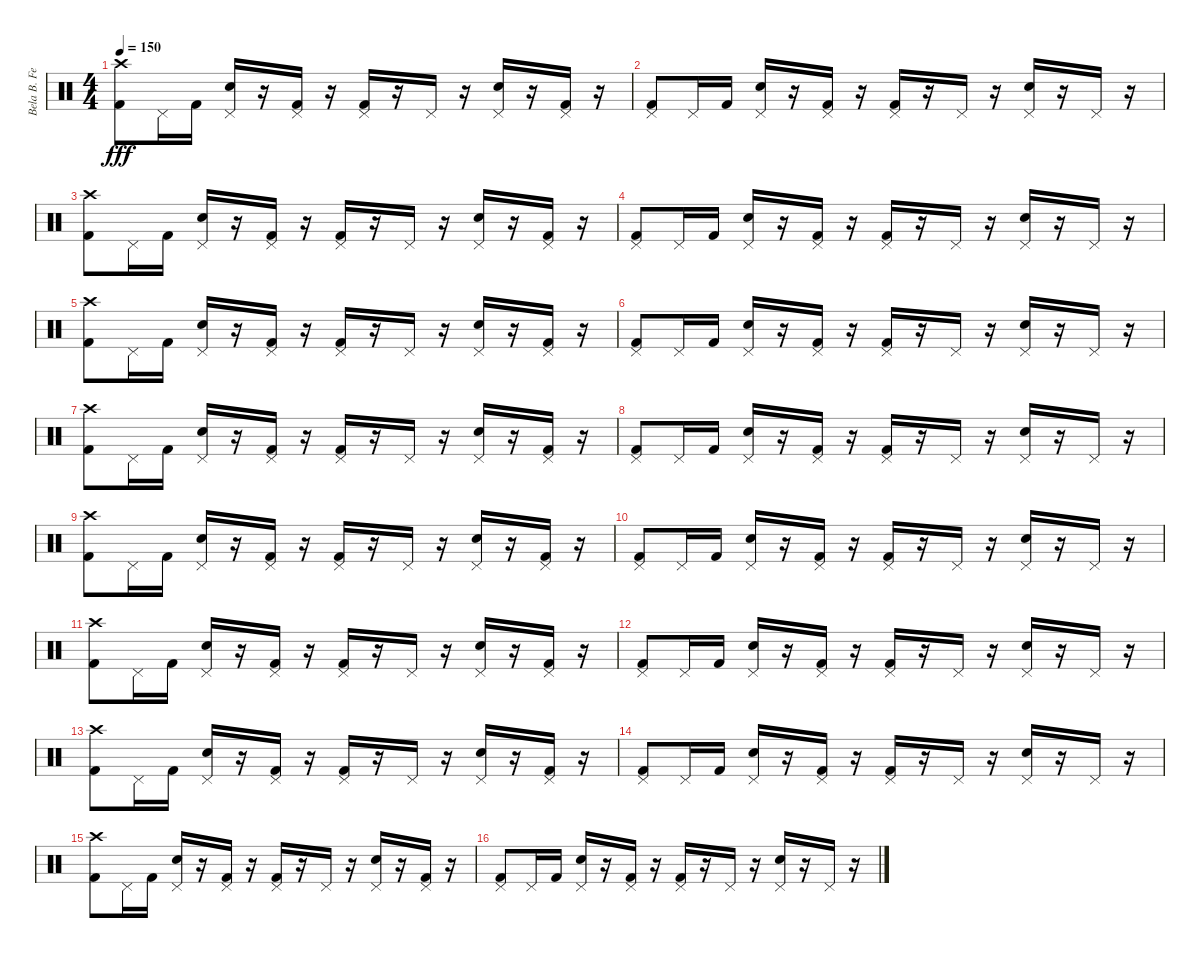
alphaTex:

\track ("Bela B. Felsenheimer" "Bela B. Fe") {instrument percussion}
\staff {score}
\articulation defaults
\ts (4 4)
\tempo 150
\clef neutral
\ks c
("Crash high (hit)" "Kick (hit) 2").8{dy fff} "Pedal Hi-Hat (hit)".16 "Kick (hit) 2".16 ("Pedal Hi-Hat (hit)" "Snare (hit) 2").16 r.16 ("Pedal Hi-Hat (hit)" "Kick (hit) 2").16 r.16 ("Pedal Hi-Hat (hit)" "Kick (hit) 2").16 r.16 "Pedal Hi-Hat (hit)".16 r.16 ("Pedal Hi-Hat (hit)" "Snare (hit) 2").16 r.16 ("Pedal Hi-Hat (hit)" "Kick (hit) 2").16 r.16 |
("Pedal Hi-Hat (hit)" "Kick (hit) 2").8 "Pedal Hi-Hat (hit)".16 "Kick (hit) 2".16 ("Pedal Hi-Hat (hit)" "Snare (hit) 2").16 r.16 ("Pedal Hi-Hat (hit)" "Kick (hit) 2").16 r.16 ("Pedal Hi-Hat (hit)" "Kick (hit) 2").16 r.16 "Pedal Hi-Hat (hit)".16 r.16 ("Pedal Hi-Hat (hit)" "Snare (hit) 2").16 r.16 "Pedal Hi-Hat (hit)".16 r.16 |
("Crash high (hit)" "Kick (hit) 2").8 "Pedal Hi-Hat (hit)".16 "Kick (hit) 2".16 ("Pedal Hi-Hat (hit)" "Snare (hit) 2").16 r.16 ("Pedal Hi-Hat (hit)" "Kick (hit) 2").16 r.16 ("Pedal Hi-Hat (hit)" "Kick (hit) 2").16 r.16 "Pedal Hi-Hat (hit)".16 r.16 ("Pedal Hi-Hat (hit)" "Snare (hit) 2").16 r.16 ("Pedal Hi-Hat (hit)" "Kick (hit) 2").16 r.16 |
("Pedal Hi-Hat (hit)" "Kick (hit) 2").8 "Pedal Hi-Hat (hit)".16 "Kick (hit) 2".16 ("Pedal Hi-Hat (hit)" "Snare (hit) 2").16 r.16 ("Pedal Hi-Hat (hit)" "Kick (hit) 2").16 r.16 ("Pedal Hi-Hat (hit)" "Kick (hit) 2").16 r.16 "Pedal Hi-Hat (hit)".16 r.16 ("Pedal Hi-Hat (hit)" "Snare (hit) 2").16 r.16 "Pedal Hi-Hat (hit)".16 r.16 |
("Crash high (hit)" "Kick (hit) 2").8 "Pedal Hi-Hat (hit)".16 "Kick (hit) 2".16 ("Pedal Hi-Hat (hit)" "Snare (hit) 2").16 r.16 ("Pedal Hi-Hat (hit)" "Kick (hit) 2").16 r.16 ("Pedal Hi-Hat (hit)" "Kick (hit) 2").16 r.16 "Pedal Hi-Hat (hit)".16 r.16 ("Pedal Hi-Hat (hit)" "Snare (hit) 2").16 r.16 ("Pedal Hi-Hat (hit)" "Kick (hit) 2").16 r.16 |
("Pedal Hi-Hat (hit)" "Kick (hit) 2").8 "Pedal Hi-Hat (hit)".16 "Kick (hit) 2".16 ("Pedal Hi-Hat (hit)" "Snare (hit) 2").16 r.16 ("Pedal Hi-Hat (hit)" "Kick (hit) 2").16 r.16 ("Pedal Hi-Hat (hit)" "Kick (hit) 2").16 r.16 "Pedal Hi-Hat (hit)".16 r.16 ("Pedal Hi-Hat (hit)" "Snare (hit) 2").16 r.16 "Pedal Hi-Hat (hit)".16 r.16 |
("Crash high (hit)" "Kick (hit) 2").8 "Pedal Hi-Hat (hit)".16 "Kick (hit) 2".16 ("Pedal Hi-Hat (hit)" "Snare (hit) 2").16 r.16 ("Pedal Hi-Hat (hit)" "Kick (hit) 2").16 r.16 ("Pedal Hi-Hat (hit)" "Kick (hit) 2").16 r.16 "Pedal Hi-Hat (hit)".16 r.16 ("Pedal Hi-Hat (hit)" "Snare (hit) 2").16 r.16 ("Pedal Hi-Hat (hit)" "Kick (hit) 2").16 r.16 |
("Pedal Hi-Hat (hit)" "Kick (hit) 2").8 "Pedal Hi-Hat (hit)".16 "Kick (hit) 2".16 ("Pedal Hi-Hat (hit)" "Snare (hit) 2").16 r.16 ("Pedal Hi-Hat (hit)" "Kick (hit) 2").16 r.16 ("Pedal Hi-Hat (hit)" "Kick (hit) 2").16 r.16 "Pedal Hi-Hat (hit)".16 r.16 ("Pedal Hi-Hat (hit)" "Snare (hit) 2").16 r.16 "Pedal Hi-Hat (hit)".16 r.16 |
("Crash high (hit)" "Kick (hit) 2").8 "Pedal Hi-Hat (hit)".16 "Kick (hit) 2".16 ("Pedal Hi-Hat (hit)" "Snare (hit) 2").16 r.16 ("Pedal Hi-Hat (hit)" "Kick (hit) 2").16 r.16 ("Pedal Hi-Hat (hit)" "Kick (hit) 2").16 r.16 "Pedal Hi-Hat (hit)".16 r.16 ("Pedal Hi-Hat (hit)" "Snare (hit) 2").16 r.16 ("Pedal Hi-Hat (hit)" "Kick (hit) 2").16 r.16 |
("Pedal Hi-Hat (hit)" "Kick (hit) 2").8 "Pedal Hi-Hat (hit)".16 "Kick (hit) 2".16 ("Pedal Hi-Hat (hit)" "Snare (hit) 2").16 r.16 ("Pedal Hi-Hat (hit)" "Kick (hit) 2").16 r.16 ("Pedal Hi-Hat (hit)" "Kick (hit) 2").16 r.16 "Pedal Hi-Hat (hit)".16 r.16 ("Pedal Hi-Hat (hit)" "Snare (hit) 2").16 r.16 "Pedal Hi-Hat (hit)".16 r.16 |
("Crash high (hit)" "Kick (hit) 2").8 "Pedal Hi-Hat (hit)".16 "Kick (hit) 2".16 ("Pedal Hi-Hat (hit)" "Snare (hit) 2").16 r.16 ("Pedal Hi-Hat (hit)" "Kick (hit) 2").16 r.16 ("Pedal Hi-Hat (hit)" "Kick (hit) 2").16 r.16 "Pedal Hi-Hat (hit)".16 r.16 ("Pedal Hi-Hat (hit)" "Snare (hit) 2").16 r.16 ("Pedal Hi-Hat (hit)" "Kick (hit) 2").16 r.16 |
("Pedal Hi-Hat (hit)" "Kick (hit) 2").8 "Pedal Hi-Hat (hit)".16 "Kick (hit) 2".16 ("Pedal Hi-Hat (hit)" "Snare (hit) 2").16 r.16 ("Pedal Hi-Hat (hit)" "Kick (hit) 2").16 r.16 ("Pedal Hi-Hat (hit)" "Kick (hit) 2").16 r.16 "Pedal Hi-Hat (hit)".16 r.16 ("Pedal Hi-Hat (hit)" "Snare (hit) 2").16 r.16 "Pedal Hi-Hat (hit)".16 r.16 |
("Crash high (hit)" "Kick (hit) 2").8 "Pedal Hi-Hat (hit)".16 "Kick (hit) 2".16 ("Pedal Hi-Hat (hit)" "Snare (hit) 2").16 r.16 ("Pedal Hi-Hat (hit)" "Kick (hit) 2").16 r.16 ("Pedal Hi-Hat (hit)" "Kick (hit) 2").16 r.16 "Pedal Hi-Hat (hit)".16 r.16 ("Pedal Hi-Hat (hit)" "Snare (hit) 2").16 r.16 ("Pedal Hi-Hat (hit)" "Kick (hit) 2").16 r.16 |
("Pedal Hi-Hat (hit)" "Kick (hit) 2").8 "Pedal Hi-Hat (hit)".16 "Kick (hit) 2".16 ("Pedal Hi-Hat (hit)" "Snare (hit) 2").16 r.16 ("Pedal Hi-Hat (hit)" "Kick (hit) 2").16 r.16 ("Pedal Hi-Hat (hit)" "Kick (hit) 2").16 r.16 "Pedal Hi-Hat (hit)".16 r.16 ("Pedal Hi-Hat (hit)" "Snare (hit) 2").16 r.16 "Pedal Hi-Hat (hit)".16 r.16 |
("Crash high (hit)" "Kick (hit) 2").8 "Pedal Hi-Hat (hit)".16 "Kick (hit) 2".16 ("Pedal Hi-Hat (hit)" "Snare (hit) 2").16 r.16 ("Pedal Hi-Hat (hit)" "Kick (hit) 2").16 r.16 ("Pedal Hi-Hat (hit)" "Kick (hit) 2").16 r.16 "Pedal Hi-Hat (hit)".16 r.16 ("Pedal Hi-Hat (hit)" "Snare (hit) 2").16 r.16 ("Pedal Hi-Hat (hit)" "Kick (hit) 2").16 r.16 |
("Pedal Hi-Hat (hit)" "Kick (hit) 2").8{volume 0} "Pedal Hi-Hat (hit)".16 "Kick (hit) 2".16 ("Pedal Hi-Hat (hit)" "Snare (hit) 2").16 r.16 ("Pedal Hi-Hat (hit)" "Kick (hit) 2").16 r.16 ("Pedal Hi-Hat (hit)" "Kick (hit) 2").16 r.16 "Pedal Hi-Hat (hit)".16 r.16 ("Pedal Hi-Hat (hit)" "Snare (hit) 2").16 r.16 "Pedal Hi-Hat (hit)".16 r.16
